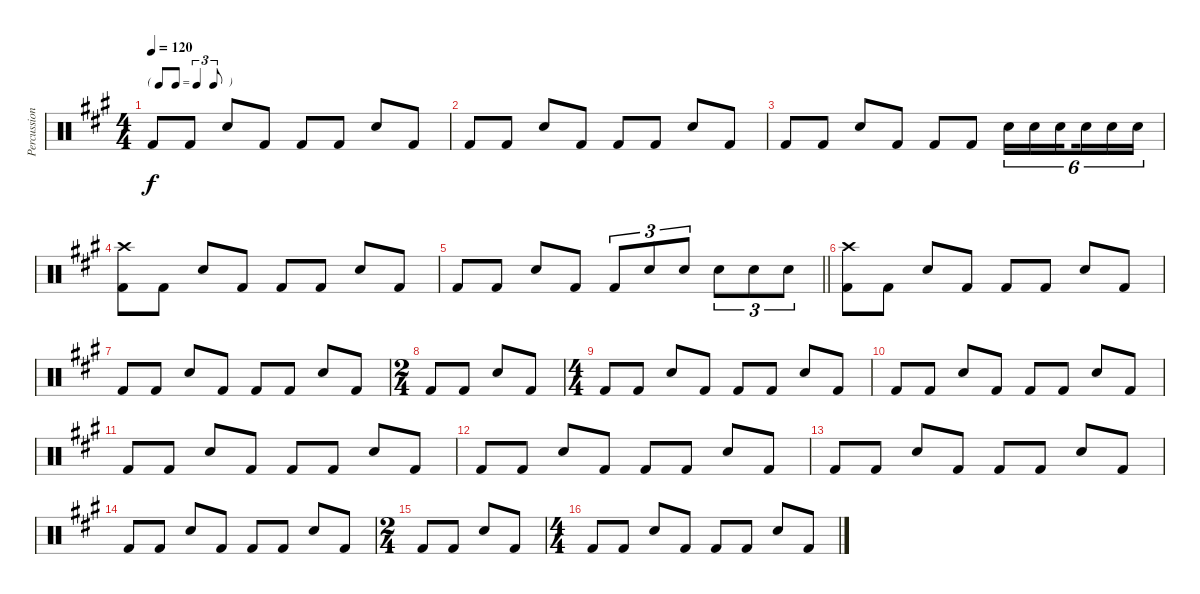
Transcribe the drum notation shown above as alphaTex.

\track ("Percussion" "Percussion") {instrument percussion}
\staff {score}
\articulation defaults
\ts (4 4)
\tf triplet8th
\tempo 120
\clef neutral
\ks a "Kick (hit) 2".8{dy f} "Kick (hit) 2".8 "Snare (hit) 2".8 "Kick (hit) 2".8 "Kick (hit) 2".8 "Kick (hit) 2".8 "Snare (hit) 2".8 "Kick (hit) 2".8
|
"Kick (hit) 2".8 "Kick (hit) 2".8 "Snare (hit) 2".8 "Kick (hit) 2".8 "Kick (hit) 2".8 "Kick (hit) 2".8 "Snare (hit) 2".8 "Kick (hit) 2".8 |
"Kick (hit) 2".8 "Kick (hit) 2".8 "Snare (hit) 2".8 "Kick (hit) 2".8 "Kick (hit) 2".8 "Kick (hit) 2".8 "Snare (hit) 2".16{tu (6 4)} "Snare (hit) 2".16{tu (6 4)} "Snare (hit) 2".16{tu (6 4) beam splitsecondary} "Snare (hit) 2".16{tu (6 4)} "Snare (hit) 2".16{tu (6 4)} "Snare (hit) 2".16{tu (6 4)} |
("Crash high (hit)" "Kick (hit) 2").8 "Kick (hit) 2".8 "Snare (hit) 2".8 "Kick (hit) 2".8 "Kick (hit) 2".8 "Kick (hit) 2".8 "Snare (hit) 2".8 "Kick (hit) 2".8 |
\barLineRight lightlight "Kick (hit) 2".8 "Kick (hit) 2".8 "Snare (hit) 2".8 "Kick (hit) 2".8 "Kick (hit) 2".8{tu (3 2)} "Snare (hit) 2".8{tu (3 2)} "Snare (hit) 2".8{tu (3 2)} "Snare (hit) 2".8{tu (3 2)} "Snare (hit) 2".8{tu (3 2)} "Snare (hit) 2".8{tu (3 2)}
|
("Crash high (hit)" "Kick (hit) 2").8 "Kick (hit) 2".8 "Snare (hit) 2".8 "Kick (hit) 2".8 "Kick (hit) 2".8 "Kick (hit) 2".8 "Snare (hit) 2".8 "Kick (hit) 2".8 |
"Kick (hit) 2".8 "Kick (hit) 2".8 "Snare (hit) 2".8 "Kick (hit) 2".8 "Kick (hit) 2".8 "Kick (hit) 2".8 "Snare (hit) 2".8 "Kick (hit) 2".8 |
\ts (2 4)
"Kick (hit) 2".8 "Kick (hit) 2".8 "Snare (hit) 2".8 "Kick (hit) 2".8 |
\ts (4 4)
"Kick (hit) 2".8 "Kick (hit) 2".8 "Snare (hit) 2".8 "Kick (hit) 2".8 "Kick (hit) 2".8 "Kick (hit) 2".8 "Snare (hit) 2".8 "Kick (hit) 2".8 |
"Kick (hit) 2".8 "Kick (hit) 2".8 "Snare (hit) 2".8 "Kick (hit) 2".8 "Kick (hit) 2".8 "Kick (hit) 2".8 "Snare (hit) 2".8 "Kick (hit) 2".8 |
"Kick (hit) 2".8 "Kick (hit) 2".8 "Snare (hit) 2".8 "Kick (hit) 2".8 "Kick (hit) 2".8 "Kick (hit) 2".8 "Snare (hit) 2".8 "Kick (hit) 2".8 |
"Kick (hit) 2".8 "Kick (hit) 2".8 "Snare (hit) 2".8 "Kick (hit) 2".8 "Kick (hit) 2".8 "Kick (hit) 2".8 "Snare (hit) 2".8 "Kick (hit) 2".8 |
"Kick (hit) 2".8 "Kick (hit) 2".8 "Snare (hit) 2".8 "Kick (hit) 2".8 "Kick (hit) 2".8 "Kick (hit) 2".8 "Snare (hit) 2".8 "Kick (hit) 2".8 |
"Kick (hit) 2".8 "Kick (hit) 2".8 "Snare (hit) 2".8 "Kick (hit) 2".8 "Kick (hit) 2".8 "Kick (hit) 2".8 "Snare (hit) 2".8 "Kick (hit) 2".8 |
\ts (2 4)
"Kick (hit) 2".8 "Kick (hit) 2".8 "Snare (hit) 2".8 "Kick (hit) 2".8 |
\ts (4 4)
"Kick (hit) 2".8 "Kick (hit) 2".8 "Snare (hit) 2".8 "Kick (hit) 2".8 "Kick (hit) 2".8 "Kick (hit) 2".8 "Snare (hit) 2".8 "Kick (hit) 2".8
